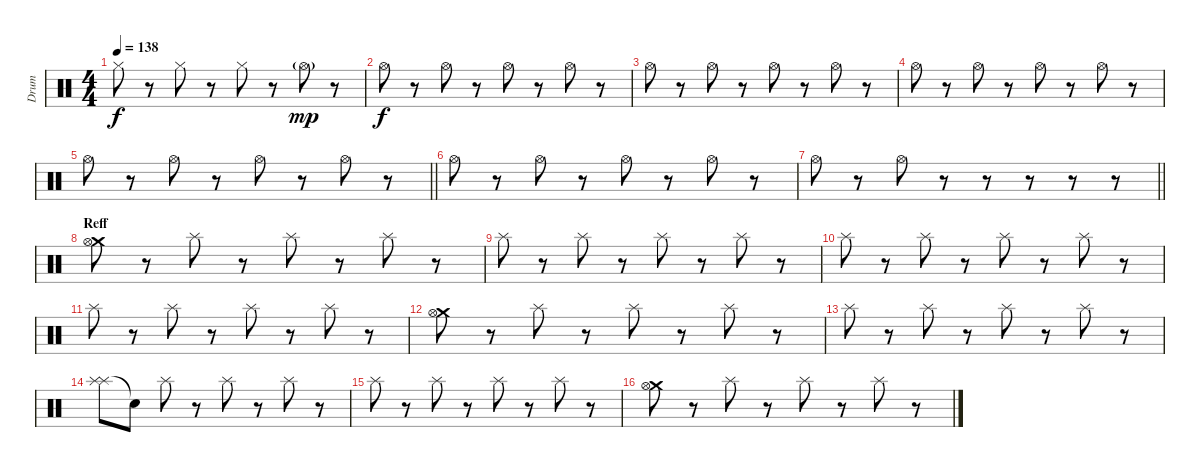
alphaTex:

\track ("Drum" "Drum") {instrument percussion}
\staff {score}
\articulation defaults
\ts (4 4)
\tempo 138
\clef neutral
\ks c "Hi-Hat (closed)".8{dy f}
r.8 "Hi-Hat (closed)".8 r.8 "Hi-Hat (closed)".8 r.8 "Hi-Hat (open)"{g}.8{dy mp} r.8 |
"Hi-Hat (open)".8{dy f} r.8 "Hi-Hat (open)".8 r.8 "Hi-Hat (open)".8 r.8 "Hi-Hat (open)".8 r.8 |
"Hi-Hat (open)".8 r.8 "Hi-Hat (open)".8 r.8 "Hi-Hat (open)".8 r.8 "Hi-Hat (open)".8 r.8 |
"Hi-Hat (open)".8 r.8 "Hi-Hat (open)".8 r.8 "Hi-Hat (open)".8 r.8 "Hi-Hat (open)".8 r.8 |
\barLineRight lightlight "Hi-Hat (open)".8
r.8 "Hi-Hat (open)".8 r.8 "Hi-Hat (open)".8 r.8 "Hi-Hat (open)".8 r.8 |
"Hi-Hat (open)".8 r.8 "Hi-Hat (open)".8 r.8 "Hi-Hat (open)".8 r.8 "Hi-Hat (open)".8 r.8 |
\barLineRight lightlight "Hi-Hat (open)".8
r.8 "Hi-Hat (open)".8 r.8 r.8 r.8 r.8 r.8 |
\section ("" "Reff")
("Crash medium (hit)" "Hi-Hat (open)").8 r.8 "Splash (hit)".8 r.8 "Splash (hit)".8 r.8 "Splash (hit)".8 r.8 |
"Splash (hit)".8 r.8 "Splash (hit)".8 r.8 "Splash (hit)".8 r.8 "Splash (hit)".8 r.8 |
"Splash (hit)".8 r.8 "Splash (hit)".8 r.8 "Splash (hit)".8 r.8 "Splash (hit)".8 r.8 |
"Splash (hit)".8 r.8 "Splash (hit)".8 r.8 "Splash (hit)".8 r.8 "Splash (hit)".8 r.8 |
("Crash medium (hit)" "Hi-Hat (open)").8 r.8 "Splash (hit)".8 r.8 "Splash (hit)".8 r.8 "Splash (hit)".8 r.8 |
"Splash (hit)".8 r.8 "Splash (hit)".8 r.8 "Splash (hit)".8 r.8 "Splash (hit)".8 r.8 |
("Splash (hit)" "Splash (hit)").8 "Snare (hit)"{t}.8 "Splash (hit)".8 r.8 "Splash (hit)".8 r.8 "Splash (hit)".8 r.8 |
"Splash (hit)".8 r.8 "Splash (hit)".8 r.8 "Splash (hit)".8 r.8 "Splash (hit)".8 r.8 |
("Crash medium (hit)" "Hi-Hat (open)").8 r.8 "Splash (hit)".8 r.8 "Splash (hit)".8 r.8 "Splash (hit)".8 r.8
